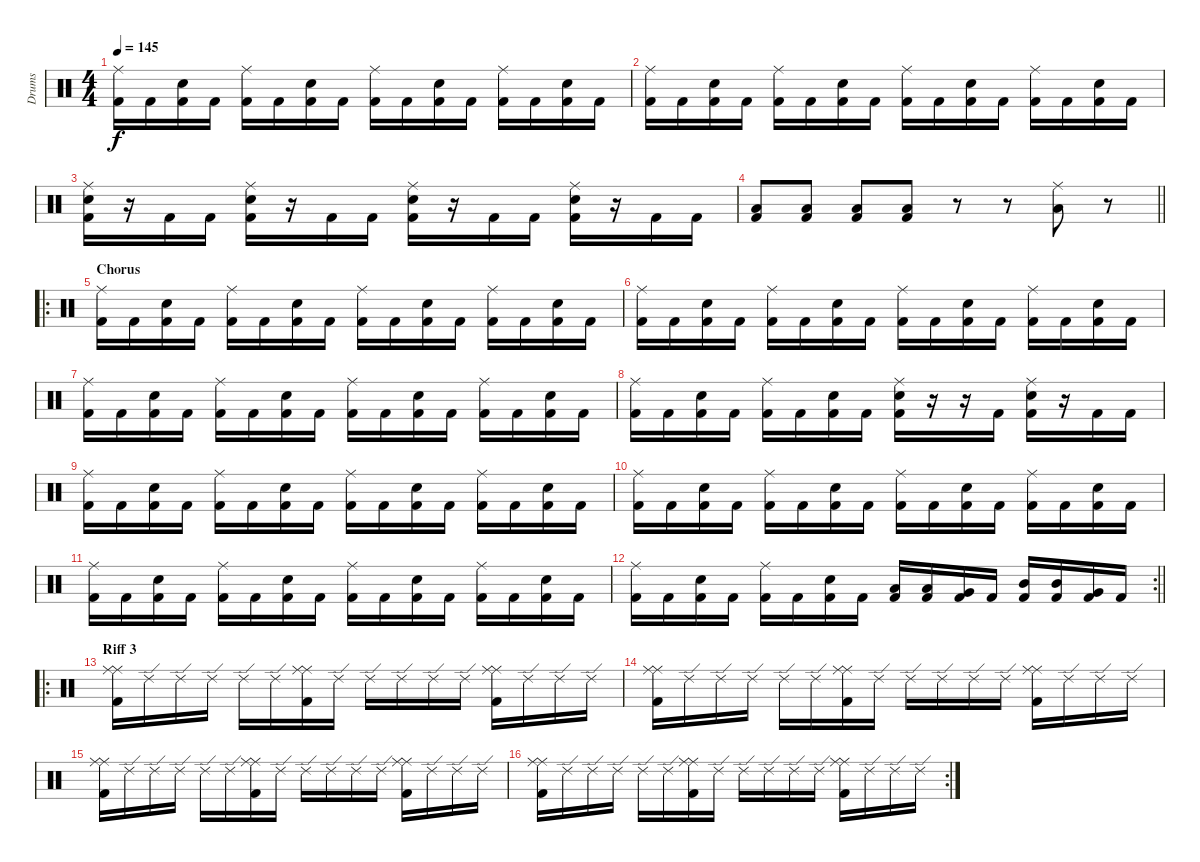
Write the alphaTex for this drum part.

\track ("Drums" "Drums") {instrument percussion}
\staff {score}
\articulation defaults
\ts (4 4)
\tempo 145
\clef neutral
\ks c
("Ride (middle)" "Kick (hit) 2").16{dy f} "Kick (hit) 2".16 ("Electric Snare (hit)" "Kick (hit) 2").16 "Kick (hit) 2".16 ("Ride (middle)" "Kick (hit) 2").16 "Kick (hit) 2".16 ("Electric Snare (hit)" "Kick (hit) 2").16 "Kick (hit) 2".16 ("Ride (middle)" "Kick (hit) 2").16 "Kick (hit) 2".16 ("Electric Snare (hit)" "Kick (hit) 2").16 "Kick (hit) 2".16 ("Ride (middle)" "Kick (hit) 2").16 "Kick (hit) 2".16 ("Electric Snare (hit)" "Kick (hit) 2").16 "Kick (hit) 2".16 |
("Ride (middle)" "Kick (hit) 2").16 "Kick (hit) 2".16 ("Electric Snare (hit)" "Kick (hit) 2").16 "Kick (hit) 2".16 ("Ride (middle)" "Kick (hit) 2").16 "Kick (hit) 2".16 ("Electric Snare (hit)" "Kick (hit) 2").16 "Kick (hit) 2".16 ("Ride (middle)" "Kick (hit) 2").16 "Kick (hit) 2".16 ("Electric Snare (hit)" "Kick (hit) 2").16 "Kick (hit) 2".16 ("Ride (middle)" "Kick (hit) 2").16 "Kick (hit) 2".16 ("Electric Snare (hit)" "Kick (hit) 2").16 "Kick (hit) 2".16 |
("Ride (middle)" "Electric Snare (hit)" "Kick (hit) 2").16 r.16 "Kick (hit) 2".16 "Kick (hit) 2".16 ("Ride (middle)" "Electric Snare (hit)" "Kick (hit) 2").16 r.16 "Kick (hit) 2".16 "Kick (hit) 2".16 ("Ride (middle)" "Electric Snare (hit)" "Kick (hit) 2").16 r.16 "Kick (hit) 2".16 "Kick (hit) 2".16 ("Ride (middle)" "Electric Snare (hit)" "Kick (hit) 2").16 r.16 "Kick (hit) 2".16 "Kick (hit) 2".16 |
\barLineRight lightlight
("Low Floor Tom (hit)" "Kick (hit) 2").8 ("Low Floor Tom (hit)" "Kick (hit) 2").8 ("Low Floor Tom (hit)" "Kick (hit) 2").8 ("Low Floor Tom (hit)" "Kick (hit) 2").8 r.8 r.8 ("Ride (middle)" "Low Floor Tom (hit)").8 r.8 |
\ro
\section ("" "Chorus")
("Ride (middle)" "Kick (hit) 2").16 "Kick (hit) 2".16 ("Electric Snare (hit)" "Kick (hit) 2").16 "Kick (hit) 2".16 ("Ride (middle)" "Kick (hit) 2").16 "Kick (hit) 2".16 ("Electric Snare (hit)" "Kick (hit) 2").16 "Kick (hit) 2".16 ("Ride (middle)" "Kick (hit) 2").16 "Kick (hit) 2".16 ("Electric Snare (hit)" "Kick (hit) 2").16 "Kick (hit) 2".16 ("Ride (middle)" "Kick (hit) 2").16 "Kick (hit) 2".16 ("Electric Snare (hit)" "Kick (hit) 2").16 "Kick (hit) 2".16 |
("Ride (middle)" "Kick (hit) 2").16 "Kick (hit) 2".16 ("Electric Snare (hit)" "Kick (hit) 2").16 "Kick (hit) 2".16 ("Ride (middle)" "Kick (hit) 2").16 "Kick (hit) 2".16 ("Electric Snare (hit)" "Kick (hit) 2").16 "Kick (hit) 2".16 ("Ride (middle)" "Kick (hit) 2").16 "Kick (hit) 2".16 ("Electric Snare (hit)" "Kick (hit) 2").16 "Kick (hit) 2".16 ("Ride (middle)" "Kick (hit) 2").16 "Kick (hit) 2".16 ("Electric Snare (hit)" "Kick (hit) 2").16 "Kick (hit) 2".16 |
("Ride (middle)" "Kick (hit) 2").16 "Kick (hit) 2".16 ("Electric Snare (hit)" "Kick (hit) 2").16 "Kick (hit) 2".16 ("Ride (middle)" "Kick (hit) 2").16 "Kick (hit) 2".16 ("Electric Snare (hit)" "Kick (hit) 2").16 "Kick (hit) 2".16 ("Ride (middle)" "Kick (hit) 2").16 "Kick (hit) 2".16 ("Electric Snare (hit)" "Kick (hit) 2").16 "Kick (hit) 2".16 ("Ride (middle)" "Kick (hit) 2").16 "Kick (hit) 2".16 ("Electric Snare (hit)" "Kick (hit) 2").16 "Kick (hit) 2".16 |
("Ride (middle)" "Kick (hit) 2").16 "Kick (hit) 2".16 ("Electric Snare (hit)" "Kick (hit) 2").16 "Kick (hit) 2".16 ("Ride (middle)" "Kick (hit) 2").16 "Kick (hit) 2".16 ("Electric Snare (hit)" "Kick (hit) 2").16 "Kick (hit) 2".16 ("Ride (middle)" "Electric Snare (hit)" "Kick (hit) 2").16 r.16 r.16 "Kick (hit) 2".16 ("Ride (middle)" "Electric Snare (hit)" "Kick (hit) 2").16 r.16 "Kick (hit) 2".16 "Kick (hit) 2".16 |
("Ride (middle)" "Kick (hit) 2").16 "Kick (hit) 2".16 ("Electric Snare (hit)" "Kick (hit) 2").16 "Kick (hit) 2".16 ("Ride (middle)" "Kick (hit) 2").16 "Kick (hit) 2".16 ("Electric Snare (hit)" "Kick (hit) 2").16 "Kick (hit) 2".16 ("Ride (middle)" "Kick (hit) 2").16 "Kick (hit) 2".16 ("Electric Snare (hit)" "Kick (hit) 2").16 "Kick (hit) 2".16 ("Ride (middle)" "Kick (hit) 2").16 "Kick (hit) 2".16 ("Electric Snare (hit)" "Kick (hit) 2").16 "Kick (hit) 2".16 |
("Ride (middle)" "Kick (hit) 2").16 "Kick (hit) 2".16 ("Electric Snare (hit)" "Kick (hit) 2").16 "Kick (hit) 2".16 ("Ride (middle)" "Kick (hit) 2").16 "Kick (hit) 2".16 ("Electric Snare (hit)" "Kick (hit) 2").16 "Kick (hit) 2".16 ("Ride (middle)" "Kick (hit) 2").16 "Kick (hit) 2".16 ("Electric Snare (hit)" "Kick (hit) 2").16 "Kick (hit) 2".16 ("Ride (middle)" "Kick (hit) 2").16 "Kick (hit) 2".16 ("Electric Snare (hit)" "Kick (hit) 2").16 "Kick (hit) 2".16 |
("Ride (middle)" "Kick (hit) 2").16 "Kick (hit) 2".16 ("Electric Snare (hit)" "Kick (hit) 2").16 "Kick (hit) 2".16 ("Ride (middle)" "Kick (hit) 2").16 "Kick (hit) 2".16 ("Electric Snare (hit)" "Kick (hit) 2").16 "Kick (hit) 2".16 ("Ride (middle)" "Kick (hit) 2").16 "Kick (hit) 2".16 ("Electric Snare (hit)" "Kick (hit) 2").16 "Kick (hit) 2".16 ("Ride (middle)" "Kick (hit) 2").16 "Kick (hit) 2".16 ("Electric Snare (hit)" "Kick (hit) 2").16 "Kick (hit) 2".16 |
\rc 2
\barLineRight lightlight
("Ride (middle)" "Kick (hit) 2").16 "Kick (hit) 2".16 ("Electric Snare (hit)" "Kick (hit) 2").16 "Kick (hit) 2".16 ("Ride (middle)" "Kick (hit) 2").16 "Kick (hit) 2".16 ("Electric Snare (hit)" "Kick (hit) 2").16 "Kick (hit) 2".16 ("Low Floor Tom (hit)" "Kick (hit) 2").16 ("Low Floor Tom (hit)" "Kick (hit) 2").16 ("Very Low Tom (hit)" "Kick (hit) 2").16 "Kick (hit) 2".16 ("Mid Tom (hit)" "Kick (hit) 2").16 ("Mid Tom (hit)" "Kick (hit) 2").16 ("Very Low Tom (hit)" "Kick (hit) 2").16 "Kick (hit) 2".16 |
\ro
\section ("" "Riff 3")
("Ride (middle)" "Ride (middle)" "Kick (hit) 2").16 "Ride (edge) 2".16 "Ride (edge) 2".16 "Ride (edge) 2".16 "Ride (edge) 2".16 "Ride (edge) 2".16 ("Ride (middle)" "Ride (middle)" "Kick (hit) 2").16 "Ride (edge) 2".16 "Ride (edge) 2".16 "Ride (edge) 2".16 "Ride (edge) 2".16 "Ride (edge) 2".16 ("Ride (middle)" "Ride (middle)" "Kick (hit) 2").16 "Ride (edge) 2".16 "Ride (edge) 2".16 "Ride (edge) 2".16 |
("Ride (middle)" "Ride (middle)" "Kick (hit) 2").16 "Ride (edge) 2".16 "Ride (edge) 2".16 "Ride (edge) 2".16 "Ride (edge) 2".16 "Ride (edge) 2".16 ("Ride (middle)" "Ride (middle)" "Kick (hit) 2").16 "Ride (edge) 2".16 "Ride (edge) 2".16 "Ride (edge) 2".16 "Ride (edge) 2".16 "Ride (edge) 2".16 ("Ride (middle)" "Ride (middle)" "Kick (hit) 2").16 "Ride (edge) 2".16 "Ride (edge) 2".16 "Ride (edge) 2".16 |
("Ride (middle)" "Ride (middle)" "Kick (hit) 2").16 "Ride (edge) 2".16 "Ride (edge) 2".16 "Ride (edge) 2".16 "Ride (edge) 2".16 "Ride (edge) 2".16 ("Ride (middle)" "Ride (middle)" "Kick (hit) 2").16 "Ride (edge) 2".16 "Ride (edge) 2".16 "Ride (edge) 2".16 "Ride (edge) 2".16 "Ride (edge) 2".16 ("Ride (middle)" "Ride (middle)" "Kick (hit) 2").16 "Ride (edge) 2".16 "Ride (edge) 2".16 "Ride (edge) 2".16 |
\rc 2
("Ride (middle)" "Ride (middle)" "Kick (hit) 2").16 "Ride (edge) 2".16 "Ride (edge) 2".16 "Ride (edge) 2".16 "Ride (edge) 2".16 "Ride (edge) 2".16 ("Ride (middle)" "Ride (middle)" "Kick (hit) 2").16 "Ride (edge) 2".16 "Ride (edge) 2".16 "Ride (edge) 2".16 "Ride (edge) 2".16 "Ride (edge) 2".16 ("Ride (middle)" "Ride (middle)" "Kick (hit) 2").16 "Ride (edge) 2".16 "Ride (edge) 2".16 "Ride (edge) 2".16
